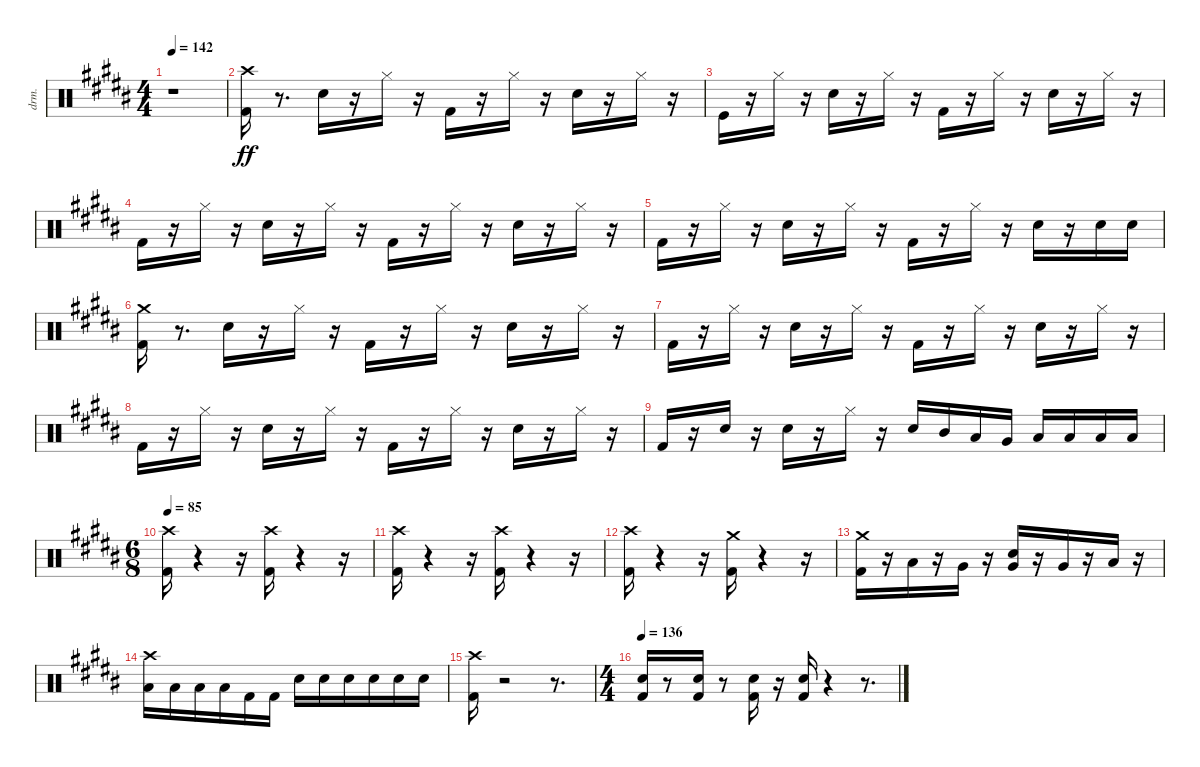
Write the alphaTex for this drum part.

\bracketExtendMode nobrackets
\track ("Drums" "drm.") {instrument percussion}
\staff {score}
\articulation defaults
\ts (4 4)
\tempo 142
\clef neutral
\ks b
r.1{dy ff beam Down} |
("Kick (hit) 2"{acc forcenatural} "Crash high (hit)"{acc #}).16{beam Down} r.8{d beam Down} "Electric Snare (hit)"{acc forcenatural}.16{beam Down} r.16{beam Down} "Hi-Hat (closed)"{acc #}.16{beam Down} r.16{beam Down} "Kick (hit) 2"{acc forcenatural}.16{beam Down} r.16{beam Down} "Hi-Hat (closed)"{acc #}.16{beam Down} r.16{beam Down} "Electric Snare (hit)"{acc forcenatural}.16{beam Down} r.16{beam Down} "Hi-Hat (closed)"{acc #}.16{beam Down} r.16{beam Down} |
"Kick (hit)"{acc forcenatural}.16{beam Down} r.16{beam Down} "Hi-Hat (closed)"{acc #}.16{beam Down} r.16{beam Down} "Electric Snare (hit)"{acc forcenatural}.16{beam Down} r.16{beam Down} "Hi-Hat (closed)"{acc #}.16{beam Down} r.16{beam Down} "Kick (hit) 2"{acc forcenatural}.16{beam Down} r.16{beam Down} "Hi-Hat (closed)"{acc #}.16{beam Down} r.16{beam Down} "Electric Snare (hit)"{acc forcenatural}.16{beam Down} r.16{beam Down} "Hi-Hat (closed)"{acc #}.16{beam Down} r.16{beam Down} |
"Kick (hit) 2"{acc forcenatural}.16{beam Down} r.16{beam Down} "Hi-Hat (closed)"{acc #}.16{beam Down} r.16{beam Down} "Electric Snare (hit)"{acc forcenatural}.16{beam Down} r.16{beam Down} "Hi-Hat (closed)"{acc #}.16{beam Down} r.16{beam Down} "Kick (hit) 2"{acc forcenatural}.16{beam Down} r.16{beam Down} "Hi-Hat (closed)"{acc #}.16{beam Down} r.16{beam Down} "Electric Snare (hit)"{acc forcenatural}.16{beam Down} r.16{beam Down} "Hi-Hat (closed)"{acc #}.16{beam Down} r.16{beam Down} |
"Kick (hit) 2"{acc forcenatural}.16{beam Down} r.16{beam Down} "Hi-Hat (closed)"{acc #}.16{beam Down} r.16{beam Down} "Electric Snare (hit)"{acc forcenatural}.16{beam Down} r.16{beam Down} "Hi-Hat (closed)"{acc #}.16{beam Down} r.16{beam Down} "Kick (hit) 2"{acc forcenatural}.16{beam Down} r.16{beam Down} "Hi-Hat (closed)"{acc #}.16{beam Down} r.16{beam Down} "Electric Snare (hit)"{acc forcenatural}.16{beam Down} r.16{beam Down} "Electric Snare (hit)"{acc forcenatural}.16{beam Down} "Electric Snare (hit)"{acc forcenatural}.16{beam Down} |
("Kick (hit) 2"{acc forcenatural} "Crash medium (hit)"{acc forcenatural}).16{beam Down} r.8{d beam Down} "Electric Snare (hit)"{acc forcenatural}.16{beam Down} r.16{beam Down} "Hi-Hat (closed)"{acc #}.16{beam Down} r.16{beam Down} "Kick (hit) 2"{acc forcenatural}.16{beam Down} r.16{beam Down} "Hi-Hat (closed)"{acc #}.16{beam Down} r.16{beam Down} "Electric Snare (hit)"{acc forcenatural}.16{beam Down} r.16{beam Down} "Hi-Hat (closed)"{acc #}.16{beam Down} r.16{beam Down} |
"Kick (hit) 2"{acc forcenatural}.16{beam Down} r.16{beam Down} "Hi-Hat (closed)"{acc #}.16{beam Down} r.16{beam Down} "Electric Snare (hit)"{acc forcenatural}.16{beam Down} r.16{beam Down} "Hi-Hat (closed)"{acc #}.16{beam Down} r.16{beam Down} "Kick (hit) 2"{acc forcenatural}.16{beam Down} r.16{beam Down} "Hi-Hat (closed)"{acc #}.16{beam Down} r.16{beam Down} "Electric Snare (hit)"{acc forcenatural}.16{beam Down} r.16{beam Down} "Hi-Hat (closed)"{acc #}.16{beam Down} r.16{beam Down} |
"Kick (hit) 2"{acc forcenatural}.16{beam Down} r.16{beam Down} "Hi-Hat (closed)"{acc #}.16{beam Down} r.16{beam Down} "Electric Snare (hit)"{acc forcenatural}.16{beam Down} r.16{beam Down} "Hi-Hat (closed)"{acc #}.16{beam Down} r.16{beam Down} "Kick (hit) 2"{acc forcenatural}.16{beam Down} r.16{beam Down} "Hi-Hat (closed)"{acc #}.16{beam Down} r.16{beam Down} "Electric Snare (hit)"{acc forcenatural}.16{beam Down} r.16{beam Down} "Hi-Hat (closed)"{acc #}.16{beam Down} r.16{beam Down} |
"Kick (hit) 2"{acc forcenatural}.16{beam Up} r.16{beam Up} "Electric Snare (hit)"{acc forcenatural}.16{beam Up} r.16{beam Down} "Electric Snare (hit)"{acc forcenatural}.16{beam Down} r.16{beam Down} "Hi-Hat (closed)"{acc #}.16{beam Down} r.16{beam Down} "Electric Snare (hit)"{acc forcenatural}.16{beam Up} "Mid Tom (hit)"{acc forcenatural}.16{beam Up} "Low Tom (hit)"{acc forcenatural}.16{beam Up} "Very Low Tom (hit)"{acc forcenatural}.16{beam Up} "Low Floor Tom (hit)"{acc forcenatural}.16{beam Up} "Low Floor Tom (hit)"{acc forcenatural}.16{beam Up} "Low Floor Tom (hit)"{acc forcenatural}.16{beam Up} "Low Floor Tom (hit)"{acc forcenatural}.16{beam Up} |
\ts (6 8)
\tempo 85
("Kick (hit) 2"{acc forcenatural} "Crash high (hit)"{acc #}).16{beam Down} r.4{beam Down} r.16{beam Down} ("Kick (hit) 2"{acc forcenatural} "Crash high (hit)"{acc #}).16{beam Down} r.4{beam Down} r.16{beam Down} |
("Kick (hit) 2"{acc forcenatural} "Crash high (hit)"{acc #}).16{beam Down} r.4{beam Down} r.16{beam Down} ("Kick (hit) 2"{acc forcenatural} "Crash high (hit)"{acc #}).16{beam Down} r.4{beam Down} r.16{beam Down} |
("Kick (hit) 2"{acc forcenatural} "Crash high (hit)"{acc #}).16{beam Down} r.4{beam Down} r.16{beam Down} ("Kick (hit) 2"{acc forcenatural} "Crash medium (hit)"{acc forcenatural}).16{beam Down} r.4{beam Down} r.16{beam Down} |
("Kick (hit) 2"{acc forcenatural} "Crash medium (hit)"{acc forcenatural}).16{beam Down} r.16{beam Down} "Low Tom (hit)"{acc forcenatural}.16{beam Down} r.16{beam Down} "Very Low Tom (hit)"{acc forcenatural}.16{beam Down} r.16{beam Down} ("Electric Snare (hit)"{acc forcenatural} "Very Low Tom (hit)"{acc forcenatural}).16{beam Up} r.16{beam Up} "Very Low Tom (hit)"{acc forcenatural}.16{beam Up} r.16{beam Up} "Low Floor Tom (hit)"{acc forcenatural}.16{beam Up} r.16{beam Down} |
("Low Floor Tom (hit)"{acc forcenatural} "Crash high (hit)"{acc #}).16{beam Down} "Low Floor Tom (hit)"{acc forcenatural}.16{beam Down} "Low Floor Tom (hit)"{acc forcenatural}.16{beam Down} "Low Floor Tom (hit)"{acc forcenatural}.16{beam Down} "Kick (hit) 2"{acc forcenatural}.16{beam Down} "Kick (hit) 2"{acc forcenatural}.16{beam Down} "Electric Snare (hit)"{acc forcenatural}.16{beam Down} "Electric Snare (hit)"{acc forcenatural}.16{beam Down} "Electric Snare (hit)"{acc forcenatural}.16{beam Down} "Electric Snare (hit)"{acc forcenatural}.16{beam Down} "Electric Snare (hit)"{acc forcenatural}.16{beam Down} "Electric Snare (hit)"{acc forcenatural}.16{beam Down} |
("Kick (hit) 2"{acc forcenatural} "Crash high (hit)"{acc #}).16{beam Down} r.2{beam Down} r.8{d beam Down} |
\ts (4 4)
\tempo 136
("Kick (hit) 2"{acc forcenatural} "Electric Snare (hit)"{acc forcenatural}).16{beam Up} r.8{beam Up} ("Kick (hit) 2"{acc forcenatural} "Electric Snare (hit)"{acc forcenatural}).16{beam Up} r.8{beam Down} ("Kick (hit) 2"{acc forcenatural} "Electric Snare (hit)"{acc forcenatural}).16{beam Up} r.16{beam Down} ("Kick (hit) 2"{acc forcenatural} "Electric Snare (hit)"{acc forcenatural}).16{beam Up} r.4{beam Down} r.8{d beam Down}
